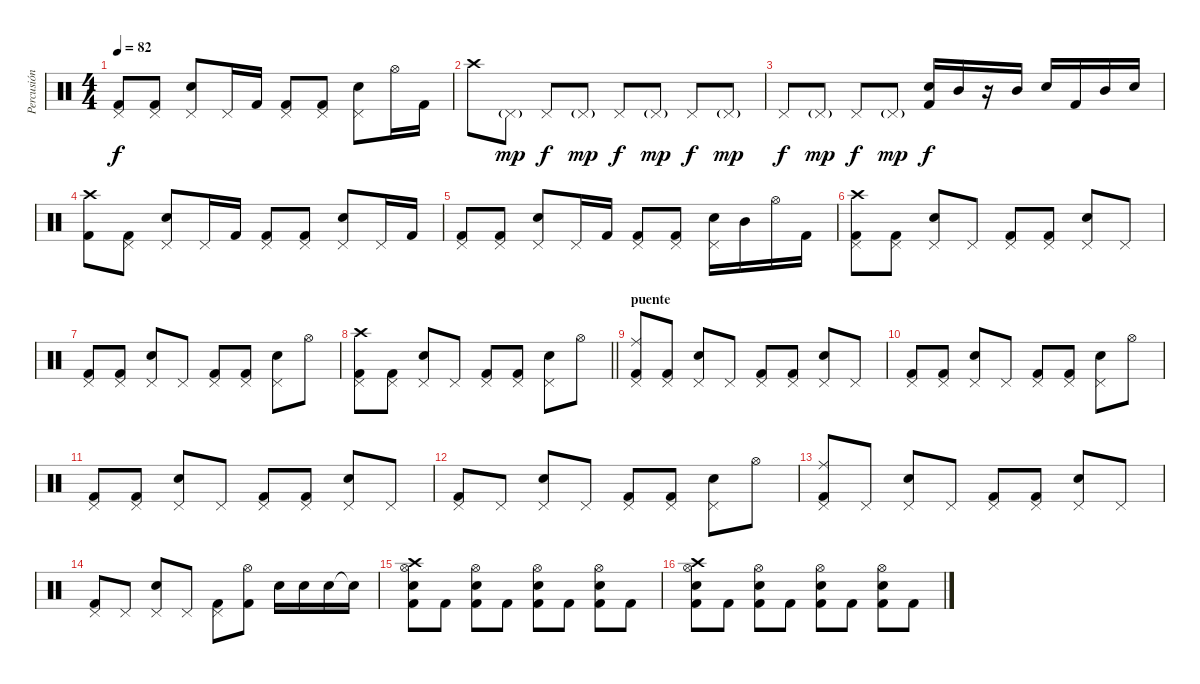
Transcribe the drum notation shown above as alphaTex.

\track ("Percusión" "Percusión") {instrument percussion}
\staff {score}
\articulation defaults
\ts (4 4)
\tempo 82
\clef neutral
\ks c
("Pedal Hi-Hat (hit)" "Kick (hit) 2").8{dy f} ("Pedal Hi-Hat (hit)" "Kick (hit) 2").8 ("Pedal Hi-Hat (hit)" "Snare (hit) 2").8 "Pedal Hi-Hat (hit)".16 "Kick (hit) 2".16 ("Pedal Hi-Hat (hit)" "Kick (hit) 2").8 ("Pedal Hi-Hat (hit)" "Kick (hit) 2").8 ("Pedal Hi-Hat (hit)" "Snare (hit) 2").8 "Hi-Hat (open)".16 "Kick (hit) 2".16 |
"Crash high (hit)".8 "Pedal Hi-Hat (hit)"{g}.8{dy mp} "Pedal Hi-Hat (hit)".8{dy f} "Pedal Hi-Hat (hit)"{g}.8{dy mp} "Pedal Hi-Hat (hit)".8{dy f} "Pedal Hi-Hat (hit)"{g}.8{dy mp} "Pedal Hi-Hat (hit)".8{dy f} "Pedal Hi-Hat (hit)"{g}.8{dy mp} |
"Pedal Hi-Hat (hit)".8{dy f} "Pedal Hi-Hat (hit)"{g}.8{dy mp} "Pedal Hi-Hat (hit)".8{dy f} "Pedal Hi-Hat (hit)"{g}.8{dy mp} ("Snare (hit) 2" "Kick (hit) 2").16{dy f} "Mid Tom (hit)".16 r.16 "Mid Tom (hit)".16 "Snare (hit) 2".16 "Kick (hit) 2".16 "Mid Tom (hit)".16 "Snare (hit) 2".16 |
("Crash high (hit)" "Kick (hit) 2").8 ("Pedal Hi-Hat (hit)" "Kick (hit) 2").8 ("Pedal Hi-Hat (hit)" "Snare (hit) 2").8 "Pedal Hi-Hat (hit)".16 "Kick (hit) 2".16 ("Pedal Hi-Hat (hit)" "Kick (hit) 2").8 ("Pedal Hi-Hat (hit)" "Kick (hit) 2").8 ("Pedal Hi-Hat (hit)" "Snare (hit) 2").8 "Pedal Hi-Hat (hit)".16 "Kick (hit) 2".16 |
("Pedal Hi-Hat (hit)" "Kick (hit) 2").8 ("Pedal Hi-Hat (hit)" "Kick (hit) 2").8 ("Pedal Hi-Hat (hit)" "Snare (hit) 2").8 "Pedal Hi-Hat (hit)".16 "Kick (hit) 2".16 ("Pedal Hi-Hat (hit)" "Kick (hit) 2").8 ("Pedal Hi-Hat (hit)" "Kick (hit) 2").8 ("Pedal Hi-Hat (hit)" "Snare (hit) 2").16 "Mid Tom (hit)".16 "Hi-Hat (open)".16 "Kick (hit) 2".16 |
("Crash high (hit)" "Pedal Hi-Hat (hit)" "Kick (hit) 2").8 ("Pedal Hi-Hat (hit)" "Kick (hit) 2").8 ("Pedal Hi-Hat (hit)" "Snare (hit) 2").8 "Pedal Hi-Hat (hit)".8 ("Pedal Hi-Hat (hit)" "Kick (hit) 2").8 ("Pedal Hi-Hat (hit)" "Kick (hit) 2").8 ("Pedal Hi-Hat (hit)" "Snare (hit) 2").8 "Pedal Hi-Hat (hit)".8 |
("Pedal Hi-Hat (hit)" "Kick (hit) 2").8 ("Pedal Hi-Hat (hit)" "Kick (hit) 2").8 ("Pedal Hi-Hat (hit)" "Snare (hit) 2").8 "Pedal Hi-Hat (hit)".8 ("Pedal Hi-Hat (hit)" "Kick (hit) 2").8 ("Pedal Hi-Hat (hit)" "Kick (hit) 2").8 ("Pedal Hi-Hat (hit)" "Snare (hit) 2").8 "Hi-Hat (open)".8 |
\barLineRight lightlight
("Crash high (hit)" "Pedal Hi-Hat (hit)" "Kick (hit) 2").8 ("Pedal Hi-Hat (hit)" "Kick (hit) 2").8 ("Pedal Hi-Hat (hit)" "Snare (hit) 2").8 "Pedal Hi-Hat (hit)".8 ("Pedal Hi-Hat (hit)" "Kick (hit) 2").8 ("Pedal Hi-Hat (hit)" "Kick (hit) 2").8 ("Pedal Hi-Hat (hit)" "Snare (hit) 2").8 "Hi-Hat (open)".8 |
\section ("" "puente")
("Ride (middle)" "Pedal Hi-Hat (hit)" "Kick (hit) 2").8 ("Pedal Hi-Hat (hit)" "Kick (hit) 2").8 ("Pedal Hi-Hat (hit)" "Snare (hit) 2").8 "Pedal Hi-Hat (hit)".8 ("Pedal Hi-Hat (hit)" "Kick (hit) 2").8 ("Pedal Hi-Hat (hit)" "Kick (hit) 2").8 ("Pedal Hi-Hat (hit)" "Snare (hit) 2").8 "Pedal Hi-Hat (hit)".8 |
("Pedal Hi-Hat (hit)" "Kick (hit) 2").8 ("Pedal Hi-Hat (hit)" "Kick (hit) 2").8 ("Pedal Hi-Hat (hit)" "Snare (hit) 2").8 "Pedal Hi-Hat (hit)".8 ("Pedal Hi-Hat (hit)" "Kick (hit) 2").8 ("Pedal Hi-Hat (hit)" "Kick (hit) 2").8 ("Pedal Hi-Hat (hit)" "Snare (hit) 2").8 "Hi-Hat (open)".8 |
("Pedal Hi-Hat (hit)" "Kick (hit) 2").8 ("Pedal Hi-Hat (hit)" "Kick (hit) 2").8 ("Pedal Hi-Hat (hit)" "Snare (hit) 2").8 "Pedal Hi-Hat (hit)".8 ("Pedal Hi-Hat (hit)" "Kick (hit) 2").8 ("Pedal Hi-Hat (hit)" "Kick (hit) 2").8 ("Pedal Hi-Hat (hit)" "Snare (hit) 2").8 "Pedal Hi-Hat (hit)".8 |
("Pedal Hi-Hat (hit)" "Kick (hit) 2").8 "Pedal Hi-Hat (hit)".8 ("Pedal Hi-Hat (hit)" "Snare (hit) 2").8 "Pedal Hi-Hat (hit)".8 ("Pedal Hi-Hat (hit)" "Kick (hit) 2").8 ("Pedal Hi-Hat (hit)" "Kick (hit) 2").8 ("Pedal Hi-Hat (hit)" "Snare (hit) 2").8 "Hi-Hat (open)".8 |
("Ride (middle)" "Pedal Hi-Hat (hit)" "Kick (hit) 2").8 "Pedal Hi-Hat (hit)".8 ("Pedal Hi-Hat (hit)" "Snare (hit) 2").8 "Pedal Hi-Hat (hit)".8 ("Pedal Hi-Hat (hit)" "Kick (hit) 2").8 ("Pedal Hi-Hat (hit)" "Kick (hit) 2").8 ("Pedal Hi-Hat (hit)" "Snare (hit) 2").8 "Pedal Hi-Hat (hit)".8 |
("Pedal Hi-Hat (hit)" "Kick (hit) 2").8 "Pedal Hi-Hat (hit)".8 ("Pedal Hi-Hat (hit)" "Snare (hit) 2").8 "Pedal Hi-Hat (hit)".8 ("Pedal Hi-Hat (hit)" "Kick (hit) 2").8 ("Hi-Hat (open)" "Kick (hit) 2").8 "Snare (hit) 2".16 "Snare (hit) 2".16 "Snare (hit) 2".16 "Snare (hit)"{t}.16 |
("Crash high (hit)" "Hi-Hat (open)" "Snare (hit) 2" "Kick (hit) 2").8 "Kick (hit) 2".8 ("Hi-Hat (open)" "Snare (hit) 2" "Kick (hit) 2").8 "Kick (hit) 2".8 ("Hi-Hat (open)" "Snare (hit) 2" "Kick (hit) 2").8 "Kick (hit) 2".8 ("Hi-Hat (open)" "Snare (hit) 2" "Kick (hit) 2").8 "Kick (hit) 2".8 |
("Crash high (hit)" "Hi-Hat (open)" "Snare (hit) 2" "Kick (hit) 2").8 "Kick (hit) 2".8 ("Hi-Hat (open)" "Snare (hit) 2" "Kick (hit) 2").8 "Kick (hit) 2".8 ("Hi-Hat (open)" "Snare (hit) 2" "Kick (hit) 2").8 "Kick (hit) 2".8 ("Hi-Hat (open)" "Snare (hit) 2" "Kick (hit) 2").8 "Kick (hit) 2".8
